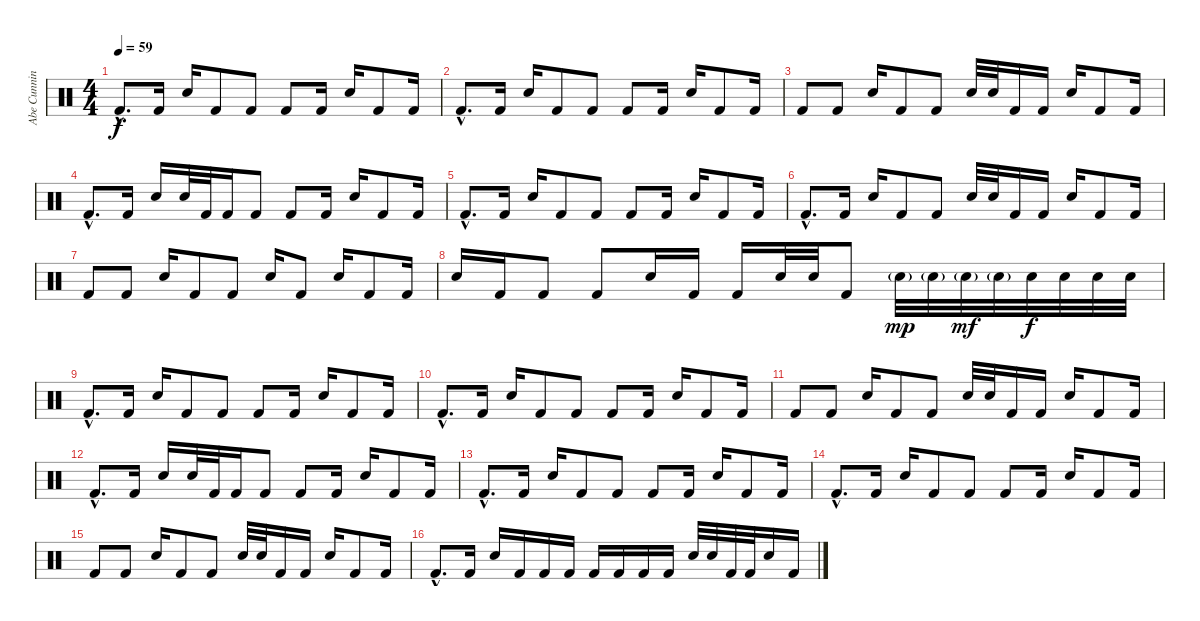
\track ("Abe Cunningham Toms& Snare" "Abe Cunnin") {instrument percussion}
\staff {score}
\articulation defaults
\ts (4 4)
\tempo 59
\clef neutral
\ks c "Kick (hit) 2"{hac}.8{d dy f} "Kick (hit) 2".16 "Snare (hit) 2".16 "Kick (hit) 2".8 "Kick (hit) 2".8 "Kick (hit) 2".8 "Kick (hit) 2".16 "Snare (hit) 2".16 "Kick (hit) 2".8 "Kick (hit) 2".16
|
"Kick (hit) 2"{hac}.8{d} "Kick (hit) 2".16 "Snare (hit) 2".16 "Kick (hit) 2".8 "Kick (hit) 2".8 "Kick (hit) 2".8 "Kick (hit) 2".16 "Snare (hit) 2".16 "Kick (hit) 2".8 "Kick (hit) 2".16 |
"Kick (hit) 2".8 "Kick (hit) 2".8 "Snare (hit) 2".16 "Kick (hit) 2".8 "Kick (hit) 2".8 "Snare (hit) 2".32 "Snare (hit) 2".32 "Kick (hit) 2".16 "Kick (hit) 2".16 "Electric Snare (hit)".16 "Kick (hit) 2".8 "Kick (hit) 2".16 |
"Kick (hit) 2"{hac}.8{d} "Kick (hit) 2".16 "Snare (hit) 2".16 "Snare (hit) 2".32 "Kick (hit) 2".32 "Kick (hit) 2".16 "Kick (hit) 2".8 "Kick (hit) 2".8 "Kick (hit) 2".16 "Snare (hit) 2".16 "Kick (hit) 2".8 "Kick (hit) 2".16 |
"Kick (hit) 2"{hac}.8{d} "Kick (hit) 2".16 "Snare (hit) 2".16 "Kick (hit) 2".8 "Kick (hit) 2".8 "Kick (hit) 2".8 "Kick (hit) 2".16 "Snare (hit) 2".16 "Kick (hit) 2".8 "Kick (hit) 2".16 |
"Kick (hit) 2"{hac}.8{d} "Kick (hit) 2".16 "Snare (hit) 2".16 "Kick (hit) 2".8 "Kick (hit) 2".8 "Snare (hit) 2".32 "Snare (hit) 2".32 "Kick (hit) 2".16 "Kick (hit) 2".16 "Electric Snare (hit)".16 "Kick (hit) 2".8 "Kick (hit) 2".16 |
"Kick (hit) 2".8 "Kick (hit) 2".8 "Snare (hit) 2".16 "Kick (hit) 2".8 "Kick (hit) 2".8 "Snare (hit) 2".16 "Kick (hit) 2".8 "Snare (hit) 2".16 "Kick (hit) 2".8 "Kick (hit) 2".16 |
"Snare (hit) 2".16 "Kick (hit) 2".16 "Kick (hit) 2".8 "Kick (hit) 2".8 "Snare (hit) 2".16 "Kick (hit) 2".16 "Kick (hit) 2".16 "Snare (hit) 2".32 "Snare (hit) 2".32 "Kick (hit) 2".8 "Snare (hit) 2"{g}.32{dy mp} "Snare (hit) 2"{g}.32 "Snare (hit) 2"{g}.32{dy mf} "Snare (hit) 2"{g}.32 "Snare (hit) 2".32{dy f} "Snare (hit) 2".32 "Snare (hit) 2".32 "Snare (hit) 2".32 |
"Kick (hit) 2"{hac}.8{d} "Kick (hit) 2".16 "Snare (hit) 2".16 "Kick (hit) 2".8 "Kick (hit) 2".8 "Kick (hit) 2".8 "Kick (hit) 2".16 "Snare (hit) 2".16 "Kick (hit) 2".8 "Kick (hit) 2".16 |
"Kick (hit) 2"{hac}.8{d} "Kick (hit) 2".16 "Snare (hit) 2".16 "Kick (hit) 2".8 "Kick (hit) 2".8 "Kick (hit) 2".8 "Kick (hit) 2".16 "Snare (hit) 2".16 "Kick (hit) 2".8 "Kick (hit) 2".16 |
"Kick (hit) 2".8 "Kick (hit) 2".8 "Snare (hit) 2".16 "Kick (hit) 2".8 "Kick (hit) 2".8 "Snare (hit) 2".32 "Snare (hit) 2".32 "Kick (hit) 2".16 "Kick (hit) 2".16 "Electric Snare (hit)".16 "Kick (hit) 2".8 "Kick (hit) 2".16 |
"Kick (hit) 2"{hac}.8{d} "Kick (hit) 2".16 "Snare (hit) 2".16 "Snare (hit) 2".32 "Kick (hit) 2".32 "Kick (hit) 2".16 "Kick (hit) 2".8 "Kick (hit) 2".8 "Kick (hit) 2".16 "Snare (hit) 2".16 "Kick (hit) 2".8 "Kick (hit) 2".16 |
"Kick (hit) 2"{hac}.8{d} "Kick (hit) 2".16 "Snare (hit) 2".16 "Kick (hit) 2".8 "Kick (hit) 2".8 "Kick (hit) 2".8 "Kick (hit) 2".16 "Snare (hit) 2".16 "Kick (hit) 2".8 "Kick (hit) 2".16 |
"Kick (hit) 2"{hac}.8{d} "Kick (hit) 2".16 "Snare (hit) 2".16 "Kick (hit) 2".8 "Kick (hit) 2".8 "Kick (hit) 2".8 "Kick (hit) 2".16 "Snare (hit) 2".16 "Kick (hit) 2".8 "Kick (hit) 2".16 |
"Kick (hit) 2".8 "Kick (hit) 2".8 "Snare (hit) 2".16 "Kick (hit) 2".8 "Kick (hit) 2".8 "Snare (hit) 2".32 "Snare (hit) 2".32 "Kick (hit) 2".16 "Kick (hit) 2".16 "Snare (hit) 2".16 "Kick (hit) 2".8 "Kick (hit) 2".16 |
"Kick (hit) 2"{hac}.8{d} "Kick (hit) 2".16 "Snare (hit) 2".16 "Kick (hit) 2".16 "Kick (hit) 2".16 "Kick (hit) 2".16 "Kick (hit) 2".16 "Kick (hit) 2".16 "Kick (hit) 2".16 "Kick (hit) 2".16 "Snare (hit) 2".32 "Snare (hit) 2".32 "Kick (hit) 2".32 "Kick (hit) 2".32 "Snare (hit) 2".16 "Kick (hit) 2".16
